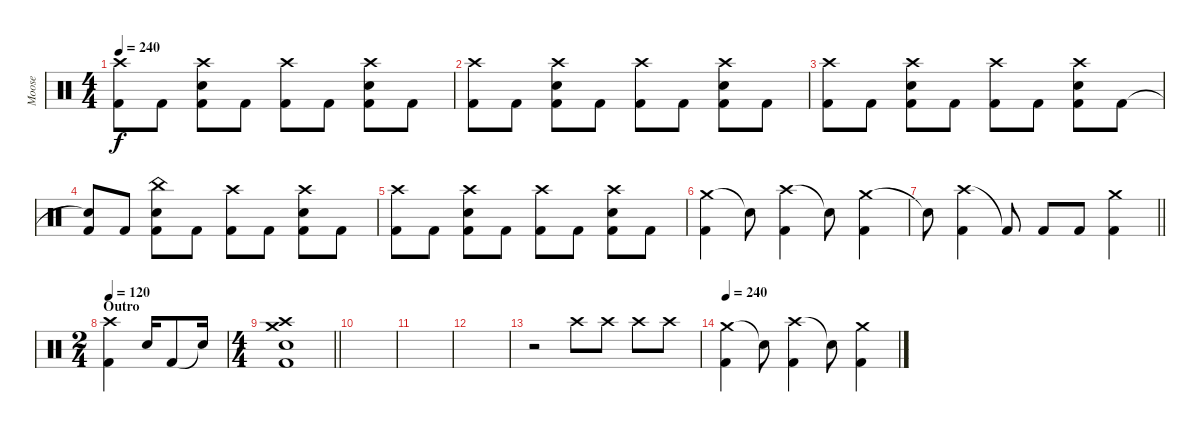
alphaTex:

\track ("Moose" "Moose") {instrument percussion}
\staff {score}
\articulation defaults
\ts (4 4)
\tempo 240
\clef neutral
\ks c
("Crash high (hit)" "Kick (hit) 2").8{dy f} "Kick (hit) 2".8 ("Crash high (hit)" "Snare (hit) 2" "Kick (hit) 2").8 "Kick (hit) 2".8 ("Crash high (hit)" "Kick (hit) 2").8 "Kick (hit) 2".8 ("Crash high (hit)" "Snare (hit) 2" "Kick (hit) 2").8 "Kick (hit) 2".8 |
("Crash high (hit)" "Kick (hit) 2").8 "Kick (hit) 2".8 ("Crash high (hit)" "Snare (hit) 2" "Kick (hit) 2").8 "Kick (hit) 2".8 ("Crash high (hit)" "Kick (hit) 2").8 "Kick (hit) 2".8 ("Crash high (hit)" "Snare (hit) 2" "Kick (hit) 2").8 "Kick (hit) 2".8 |
("Crash high (hit)" "Kick (hit) 2").8 "Kick (hit) 2".8 ("Crash high (hit)" "Snare (hit) 2" "Kick (hit) 2").8 "Kick (hit) 2".8 ("Crash high (hit)" "Kick (hit) 2").8 "Kick (hit) 2".8 ("Crash high (hit)" "Snare (hit) 2" "Kick (hit) 2").8 "Kick (hit) 2".8 |
("Snare (hit)"{t} "Kick (hit) 2").8 "Kick (hit) 2".8 ("China (hit)" "Snare (hit) 2" "Kick (hit) 2").8 "Kick (hit) 2".8 ("Crash high (hit)" "Kick (hit) 2").8 "Kick (hit) 2".8 ("Crash high (hit)" "Snare (hit) 2" "Kick (hit) 2").8 "Kick (hit) 2".8 |
("Crash high (hit)" "Kick (hit) 2").8 "Kick (hit) 2".8 ("Crash high (hit)" "Snare (hit) 2" "Kick (hit) 2").8 "Kick (hit) 2".8 ("Crash high (hit)" "Kick (hit) 2").8 "Kick (hit) 2".8 ("Crash high (hit)" "Snare (hit) 2" "Kick (hit) 2").8 "Kick (hit) 2".8 |
("Crash medium (hit)" "Kick (hit) 2").4 "Snare (hit)"{t}.8 ("Crash high (hit)" "Kick (hit) 2").4 "Snare (hit)"{t}.8 ("Crash medium (hit)" "Kick (hit) 2").4 |
\barLineRight lightlight "Snare (hit)"{t}.8
("Crash high (hit)" "Kick (hit) 2").4 "Kick (hit) 2"{t}.8 "Kick (hit) 2".8 "Kick (hit) 2".8 ("Crash medium (hit)" "Kick (hit) 2").4 |
\ts (2 4)
\section ("" "Outro")
\tempo 120
("Crash high (hit)" "Kick (hit) 2").4 "Snare (hit) 2".16 "Kick (hit) 2".8 "Snare (hit)"{t}.16 |
\ts (4 4)
\barLineRight lightlight
("Crash medium (hit)" "Crash high (hit)" "Snare (hit) 2" "Kick (hit) 2").1 |
|
|
|
r.2 "Crash high (hit)".8 "Crash high (hit)".8 "Crash high (hit)".8 "Crash high (hit)".8 |
\tempo 240
("Crash medium (hit)" "Kick (hit) 2").4 "Snare (hit)"{t}.8 ("Crash high (hit)" "Kick (hit) 2").4 "Snare (hit)"{t}.8 ("Crash medium (hit)" "Kick (hit) 2").4
